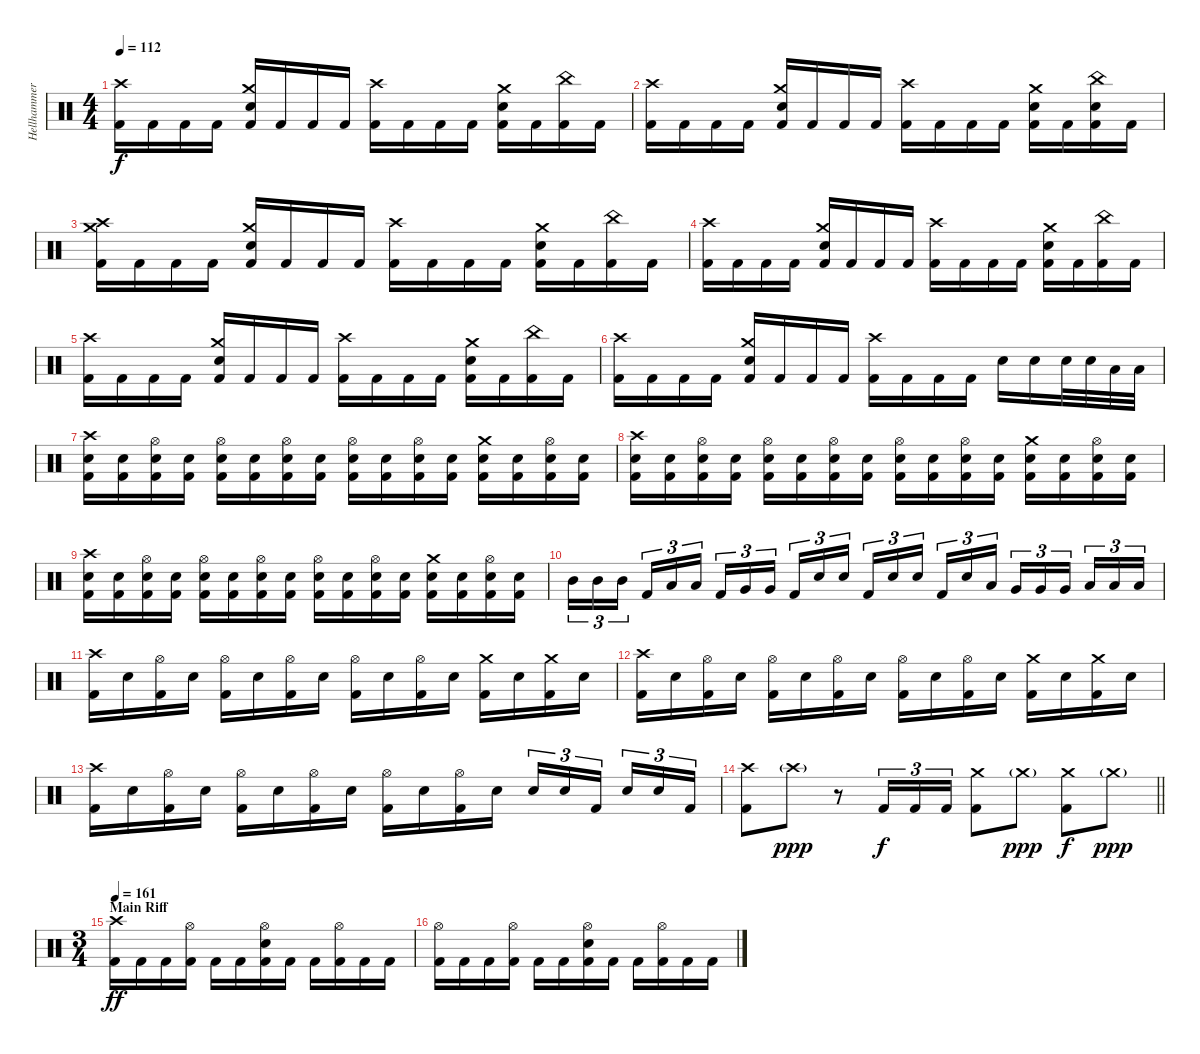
\track ("Hellhammer" "Hellhammer") {instrument percussion}
\staff {score}
\articulation defaults
\ts (4 4)
\tempo 112
\clef neutral
\ks c
("Crash high (hit)" "Kick (hit) 2").16{dy f} "Kick (hit) 2".16 "Kick (hit) 2".16 "Kick (hit) 2".16 ("Crash medium (hit)" "Snare (hit) 2" "Kick (hit) 2").16 "Kick (hit) 2".16 "Kick (hit) 2".16 "Kick (hit) 2".16 ("Crash high (hit)" "Kick (hit) 2").16 "Kick (hit) 2".16 "Kick (hit) 2".16 "Kick (hit) 2".16 ("Crash medium (hit)" "Snare (hit) 2" "Kick (hit) 2").16 "Kick (hit) 2".16 ("China (hit)" "Kick (hit) 2").16 "Kick (hit) 2".16 |
("Crash high (hit)" "Kick (hit) 2").16 "Kick (hit) 2".16 "Kick (hit) 2".16 "Kick (hit) 2".16 ("Crash medium (hit)" "Snare (hit) 2" "Kick (hit) 2").16 "Kick (hit) 2".16 "Kick (hit) 2".16 "Kick (hit) 2".16 ("Crash high (hit)" "Kick (hit) 2").16 "Kick (hit) 2".16 "Kick (hit) 2".16 "Kick (hit) 2".16 ("Crash medium (hit)" "Snare (hit) 2" "Kick (hit) 2").16 "Kick (hit) 2".16 ("China (hit)" "Snare (hit) 2" "Kick (hit) 2").16 "Kick (hit) 2".16 |
("Crash high (hit)" "Crash medium (hit)" "Kick (hit) 2").16 "Kick (hit) 2".16 "Kick (hit) 2".16 "Kick (hit) 2".16 ("Crash medium (hit)" "Snare (hit) 2" "Kick (hit) 2").16 "Kick (hit) 2".16 "Kick (hit) 2".16 "Kick (hit) 2".16 ("Crash high (hit)" "Kick (hit) 2").16 "Kick (hit) 2".16 "Kick (hit) 2".16 "Kick (hit) 2".16 ("Crash medium (hit)" "Snare (hit) 2" "Kick (hit) 2").16 "Kick (hit) 2".16 ("China (hit)" "Kick (hit) 2").16 "Kick (hit) 2".16 |
("Crash high (hit)" "Kick (hit) 2").16 "Kick (hit) 2".16 "Kick (hit) 2".16 "Kick (hit) 2".16 ("Crash medium (hit)" "Snare (hit) 2" "Kick (hit) 2").16 "Kick (hit) 2".16 "Kick (hit) 2".16 "Kick (hit) 2".16 ("Crash high (hit)" "Kick (hit) 2").16 "Kick (hit) 2".16 "Kick (hit) 2".16 "Kick (hit) 2".16 ("Crash medium (hit)" "Snare (hit) 2" "Kick (hit) 2").16 "Kick (hit) 2".16 ("China (hit)" "Kick (hit) 2").16 "Kick (hit) 2".16 |
("Crash high (hit)" "Kick (hit) 2").16 "Kick (hit) 2".16 "Kick (hit) 2".16 "Kick (hit) 2".16 ("Crash medium (hit)" "Snare (hit) 2" "Kick (hit) 2").16 "Kick (hit) 2".16 "Kick (hit) 2".16 "Kick (hit) 2".16 ("Crash high (hit)" "Kick (hit) 2").16 "Kick (hit) 2".16 "Kick (hit) 2".16 "Kick (hit) 2".16 ("Crash medium (hit)" "Snare (hit) 2" "Kick (hit) 2").16 "Kick (hit) 2".16 ("China (hit)" "Kick (hit) 2").16 "Kick (hit) 2".16 |
("Crash high (hit)" "Kick (hit) 2").16 "Kick (hit) 2".16 "Kick (hit) 2".16 "Kick (hit) 2".16 ("Crash medium (hit)" "Snare (hit) 2" "Kick (hit) 2").16 "Kick (hit) 2".16 "Kick (hit) 2".16 "Kick (hit) 2".16 ("Crash high (hit)" "Kick (hit) 2").16 "Kick (hit) 2".16 "Kick (hit) 2".16 "Kick (hit) 2".16 "Snare (hit) 2".16 "Snare (hit) 2".16 "Snare (hit) 2".32 "Snare (hit) 2".32 "Low Tom (hit)".32 "Low Tom (hit)".32 |
("Crash high (hit)" "Snare (hit) 2" "Kick (hit) 2").16 ("Snare (hit) 2" "Kick (hit) 2").16 ("Hi-Hat (open)" "Snare (hit) 2" "Kick (hit) 2").16 ("Snare (hit) 2" "Kick (hit) 2").16 ("Hi-Hat (open)" "Snare (hit) 2" "Kick (hit) 2").16 ("Snare (hit) 2" "Kick (hit) 2").16 ("Hi-Hat (open)" "Snare (hit) 2" "Kick (hit) 2").16 ("Snare (hit) 2" "Kick (hit) 2").16 ("Hi-Hat (open)" "Snare (hit) 2" "Kick (hit) 2").16 ("Snare (hit) 2" "Kick (hit) 2").16 ("Hi-Hat (open)" "Snare (hit) 2" "Kick (hit) 2").16 ("Snare (hit) 2" "Kick (hit) 2").16 ("Crash medium (hit)" "Snare (hit) 2" "Kick (hit) 2").16 ("Snare (hit) 2" "Kick (hit) 2").16 ("Hi-Hat (open)" "Snare (hit) 2" "Kick (hit) 2").16 ("Snare (hit) 2" "Kick (hit) 2").16 |
("Crash high (hit)" "Snare (hit) 2" "Kick (hit) 2").16 ("Snare (hit) 2" "Kick (hit) 2").16 ("Hi-Hat (open)" "Snare (hit) 2" "Kick (hit) 2").16 ("Snare (hit) 2" "Kick (hit) 2").16 ("Hi-Hat (open)" "Snare (hit) 2" "Kick (hit) 2").16 ("Snare (hit) 2" "Kick (hit) 2").16 ("Hi-Hat (open)" "Snare (hit) 2" "Kick (hit) 2").16 ("Snare (hit) 2" "Kick (hit) 2").16 ("Hi-Hat (open)" "Snare (hit) 2" "Kick (hit) 2").16 ("Snare (hit) 2" "Kick (hit) 2").16 ("Hi-Hat (open)" "Snare (hit) 2" "Kick (hit) 2").16 ("Snare (hit) 2" "Kick (hit) 2").16 ("Crash medium (hit)" "Snare (hit) 2" "Kick (hit) 2").16 ("Snare (hit) 2" "Kick (hit) 2").16 ("Hi-Hat (open)" "Snare (hit) 2" "Kick (hit) 2").16 ("Snare (hit) 2" "Kick (hit) 2").16 |
("Crash high (hit)" "Snare (hit) 2" "Kick (hit) 2").16 ("Snare (hit) 2" "Kick (hit) 2").16 ("Hi-Hat (open)" "Snare (hit) 2" "Kick (hit) 2").16 ("Snare (hit) 2" "Kick (hit) 2").16 ("Hi-Hat (open)" "Snare (hit) 2" "Kick (hit) 2").16 ("Snare (hit) 2" "Kick (hit) 2").16 ("Hi-Hat (open)" "Snare (hit) 2" "Kick (hit) 2").16 ("Snare (hit) 2" "Kick (hit) 2").16 ("Hi-Hat (open)" "Snare (hit) 2" "Kick (hit) 2").16 ("Snare (hit) 2" "Kick (hit) 2").16 ("Hi-Hat (open)" "Snare (hit) 2" "Kick (hit) 2").16 ("Snare (hit) 2" "Kick (hit) 2").16 ("Crash medium (hit)" "Snare (hit) 2" "Kick (hit) 2").16 ("Snare (hit) 2" "Kick (hit) 2").16 ("Hi-Hat (open)" "Snare (hit) 2" "Kick (hit) 2").16 ("Snare (hit) 2" "Kick (hit) 2").16 |
"Mid Tom (hit)".16{tu (3 2)} "Mid Tom (hit)".16{tu (3 2)} "Mid Tom (hit)".16{tu (3 2) beam splitsecondary} "Kick (hit) 2".16{tu (3 2)} "Low Tom (hit)".16{tu (3 2)} "Low Tom (hit)".16{tu (3 2)} "Kick (hit) 2".16{tu (3 2)} "Very Low Tom (hit)".16{tu (3 2)} "Very Low Tom (hit)".16{tu (3 2) beam splitsecondary} "Kick (hit) 2".16{tu (3 2)} "Snare (hit) 2".16{tu (3 2)} "Snare (hit) 2".16{tu (3 2)} "Kick (hit) 2".16{tu (3 2)} "Snare (hit) 2".16{tu (3 2)} "Snare (hit) 2".16{tu (3 2) beam splitsecondary} "Kick (hit) 2".16{tu (3 2)} "Snare (hit) 2".16{tu (3 2)} "Low Tom (hit)".16{tu (3 2)} "Very Low Tom (hit)".16{tu (3 2)} "Very Low Tom (hit)".16{tu (3 2)} "Very Low Tom (hit)".16{tu (3 2) beam splitsecondary} "Low Floor Tom (hit)".16{tu (3 2)} "Low Floor Tom (hit)".16{tu (3 2)} "Low Floor Tom (hit)".16{tu (3 2)} |
("Crash high (hit)" "Kick (hit) 2").16 "Snare (hit) 2".16 ("Hi-Hat (open)" "Kick (hit) 2").16 "Snare (hit) 2".16 ("Hi-Hat (open)" "Kick (hit) 2").16 "Snare (hit) 2".16 ("Hi-Hat (open)" "Kick (hit) 2").16 "Snare (hit) 2".16 ("Hi-Hat (open)" "Kick (hit) 2").16 "Snare (hit) 2".16 ("Hi-Hat (open)" "Kick (hit) 2").16 "Snare (hit) 2".16 ("Crash medium (hit)" "Kick (hit) 2").16 "Snare (hit) 2".16 ("Crash medium (hit)" "Kick (hit) 2").16 "Snare (hit) 2".16 |
("Crash high (hit)" "Kick (hit) 2").16 "Snare (hit) 2".16 ("Hi-Hat (open)" "Kick (hit) 2").16 "Snare (hit) 2".16 ("Hi-Hat (open)" "Kick (hit) 2").16 "Snare (hit) 2".16 ("Hi-Hat (open)" "Kick (hit) 2").16 "Snare (hit) 2".16 ("Hi-Hat (open)" "Kick (hit) 2").16 "Snare (hit) 2".16 ("Hi-Hat (open)" "Kick (hit) 2").16 "Snare (hit) 2".16 ("Crash medium (hit)" "Kick (hit) 2").16 "Snare (hit) 2".16 ("Crash medium (hit)" "Kick (hit) 2").16 "Snare (hit) 2".16 |
("Crash high (hit)" "Kick (hit) 2").16 "Snare (hit) 2".16 ("Hi-Hat (open)" "Kick (hit) 2").16 "Snare (hit) 2".16 ("Hi-Hat (open)" "Kick (hit) 2").16 "Snare (hit) 2".16 ("Hi-Hat (open)" "Kick (hit) 2").16 "Snare (hit) 2".16 ("Hi-Hat (open)" "Kick (hit) 2").16 "Snare (hit) 2".16 ("Hi-Hat (open)" "Kick (hit) 2").16 "Snare (hit) 2".16 "Snare (hit) 2".16{tu (3 2)} "Snare (hit) 2".16{tu (3 2)} "Kick (hit) 2".16{tu (3 2) beam splitsecondary} "Snare (hit) 2".16{tu (3 2)} "Snare (hit) 2".16{tu (3 2)} "Kick (hit) 2".16{tu (3 2)} |
\barLineRight lightlight
("Crash high (hit)" "Kick (hit) 2").8 "Crash high (hit)"{g}.8{dy ppp} r.8 "Kick (hit) 2".16{tu (3 2) dy f} "Kick (hit) 2".16{tu (3 2)} "Kick (hit) 2".16{tu (3 2)} ("Crash medium (hit)" "Kick (hit) 2").8 "Crash medium (hit)"{g}.8{dy ppp} ("Crash medium (hit)" "Kick (hit) 2").8{dy f} "Crash medium (hit)"{g}.8{dy ppp} |
\ts (3 4)
\section ("" "Main Riff")
\tempo 161
("Crash high (hit)" "Kick (hit) 2").16{dy ff} "Kick (hit) 2".16 "Kick (hit) 2".16 ("Hi-Hat (open)" "Kick (hit) 2").16 "Kick (hit) 2".16 "Kick (hit) 2".16 ("Hi-Hat (open)" "Snare (hit) 2" "Kick (hit) 2").16 "Kick (hit) 2".16 "Kick (hit) 2".16 ("Hi-Hat (open)" "Kick (hit) 2").16 "Kick (hit) 2".16 "Kick (hit) 2".16 |
("Hi-Hat (open)" "Kick (hit) 2").16 "Kick (hit) 2".16 "Kick (hit) 2".16 ("Hi-Hat (open)" "Kick (hit) 2").16 "Kick (hit) 2".16 "Kick (hit) 2".16 ("Hi-Hat (open)" "Snare (hit) 2" "Kick (hit) 2").16 "Kick (hit) 2".16 "Kick (hit) 2".16 ("Hi-Hat (open)" "Kick (hit) 2").16 "Kick (hit) 2".16 "Kick (hit) 2".16
